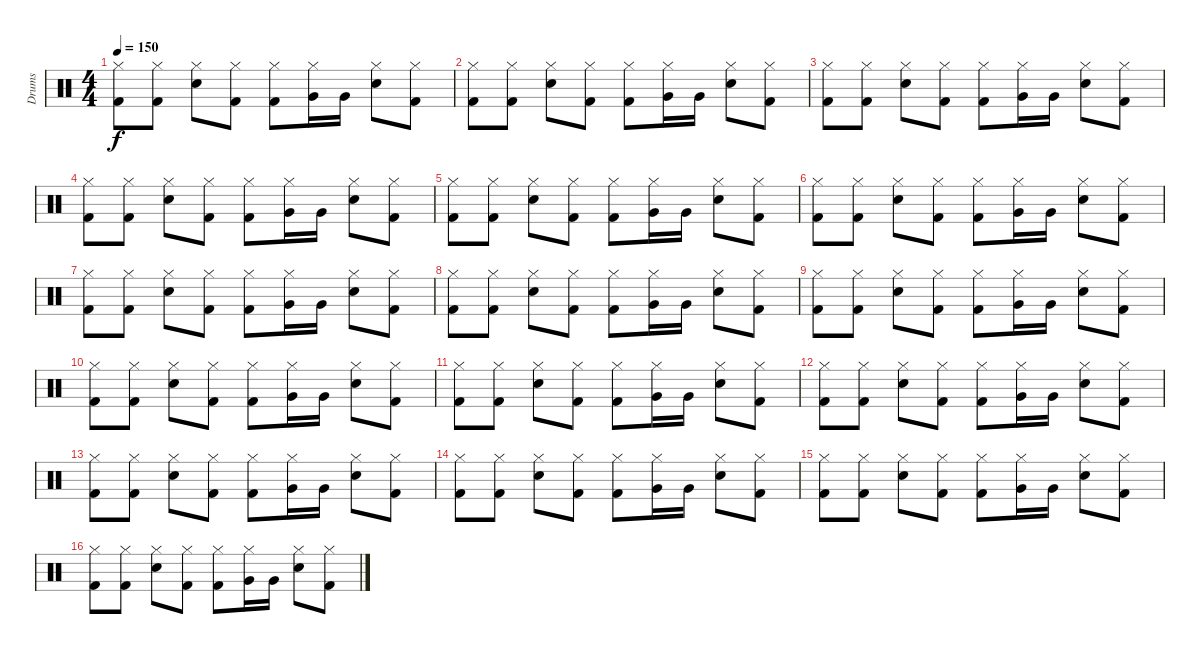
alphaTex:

\track ("Drums" "Drums") {instrument percussion}
\staff {score}
\articulation defaults
\ts (4 4)
\tempo 150
\clef neutral
\ks c
("Hi-Hat (closed)" "Kick (hit) 2").8{dy f} ("Hi-Hat (closed)" "Kick (hit) 2").8 ("Hi-Hat (closed)" "Snare (hit) 2").8 ("Hi-Hat (closed)" "Kick (hit) 2").8 ("Hi-Hat (closed)" "Kick (hit) 2").8 ("Hi-Hat (closed)" "Very Low Tom (hit)").16 "Very Low Tom (hit)".16 ("Hi-Hat (closed)" "Snare (hit) 2").8 ("Hi-Hat (closed)" "Kick (hit) 2").8 |
("Hi-Hat (closed)" "Kick (hit) 2").8 ("Hi-Hat (closed)" "Kick (hit) 2").8 ("Hi-Hat (closed)" "Snare (hit) 2").8 ("Hi-Hat (closed)" "Kick (hit) 2").8 ("Hi-Hat (closed)" "Kick (hit) 2").8 ("Hi-Hat (closed)" "Very Low Tom (hit)").16 "Very Low Tom (hit)".16 ("Hi-Hat (closed)" "Snare (hit) 2").8 ("Hi-Hat (closed)" "Kick (hit) 2").8 |
("Hi-Hat (closed)" "Kick (hit) 2").8 ("Hi-Hat (closed)" "Kick (hit) 2").8 ("Hi-Hat (closed)" "Snare (hit) 2").8 ("Hi-Hat (closed)" "Kick (hit) 2").8 ("Hi-Hat (closed)" "Kick (hit) 2").8 ("Hi-Hat (closed)" "Very Low Tom (hit)").16 "Very Low Tom (hit)".16 ("Hi-Hat (closed)" "Snare (hit) 2").8 ("Hi-Hat (closed)" "Kick (hit) 2").8 |
("Hi-Hat (closed)" "Kick (hit) 2").8 ("Hi-Hat (closed)" "Kick (hit) 2").8 ("Hi-Hat (closed)" "Snare (hit) 2").8 ("Hi-Hat (closed)" "Kick (hit) 2").8 ("Hi-Hat (closed)" "Kick (hit) 2").8 ("Hi-Hat (closed)" "Very Low Tom (hit)").16 "Very Low Tom (hit)".16 ("Hi-Hat (closed)" "Snare (hit) 2").8 ("Hi-Hat (closed)" "Kick (hit) 2").8 |
("Hi-Hat (closed)" "Kick (hit) 2").8 ("Hi-Hat (closed)" "Kick (hit) 2").8 ("Hi-Hat (closed)" "Snare (hit) 2").8 ("Hi-Hat (closed)" "Kick (hit) 2").8 ("Hi-Hat (closed)" "Kick (hit) 2").8 ("Hi-Hat (closed)" "Very Low Tom (hit)").16 "Very Low Tom (hit)".16 ("Hi-Hat (closed)" "Snare (hit) 2").8 ("Hi-Hat (closed)" "Kick (hit) 2").8 |
("Hi-Hat (closed)" "Kick (hit) 2").8 ("Hi-Hat (closed)" "Kick (hit) 2").8 ("Hi-Hat (closed)" "Snare (hit) 2").8 ("Hi-Hat (closed)" "Kick (hit) 2").8 ("Hi-Hat (closed)" "Kick (hit) 2").8 ("Hi-Hat (closed)" "Very Low Tom (hit)").16 "Very Low Tom (hit)".16 ("Hi-Hat (closed)" "Snare (hit) 2").8 ("Hi-Hat (closed)" "Kick (hit) 2").8 |
("Hi-Hat (closed)" "Kick (hit) 2").8 ("Hi-Hat (closed)" "Kick (hit) 2").8 ("Hi-Hat (closed)" "Snare (hit) 2").8 ("Hi-Hat (closed)" "Kick (hit) 2").8 ("Hi-Hat (closed)" "Kick (hit) 2").8 ("Hi-Hat (closed)" "Very Low Tom (hit)").16 "Very Low Tom (hit)".16 ("Hi-Hat (closed)" "Snare (hit) 2").8 ("Hi-Hat (closed)" "Kick (hit) 2").8 |
("Hi-Hat (closed)" "Kick (hit) 2").8 ("Hi-Hat (closed)" "Kick (hit) 2").8 ("Hi-Hat (closed)" "Snare (hit) 2").8 ("Hi-Hat (closed)" "Kick (hit) 2").8 ("Hi-Hat (closed)" "Kick (hit) 2").8 ("Hi-Hat (closed)" "Very Low Tom (hit)").16 "Very Low Tom (hit)".16 ("Hi-Hat (closed)" "Snare (hit) 2").8 ("Hi-Hat (closed)" "Kick (hit) 2").8 |
("Hi-Hat (closed)" "Kick (hit) 2").8 ("Hi-Hat (closed)" "Kick (hit) 2").8 ("Hi-Hat (closed)" "Snare (hit) 2").8 ("Hi-Hat (closed)" "Kick (hit) 2").8 ("Hi-Hat (closed)" "Kick (hit) 2").8 ("Hi-Hat (closed)" "Very Low Tom (hit)").16 "Very Low Tom (hit)".16 ("Hi-Hat (closed)" "Snare (hit) 2").8 ("Hi-Hat (closed)" "Kick (hit) 2").8 |
("Hi-Hat (closed)" "Kick (hit) 2").8 ("Hi-Hat (closed)" "Kick (hit) 2").8 ("Hi-Hat (closed)" "Snare (hit) 2").8 ("Hi-Hat (closed)" "Kick (hit) 2").8 ("Hi-Hat (closed)" "Kick (hit) 2").8 ("Hi-Hat (closed)" "Very Low Tom (hit)").16 "Very Low Tom (hit)".16 ("Hi-Hat (closed)" "Snare (hit) 2").8 ("Hi-Hat (closed)" "Kick (hit) 2").8 |
("Hi-Hat (closed)" "Kick (hit) 2").8 ("Hi-Hat (closed)" "Kick (hit) 2").8 ("Hi-Hat (closed)" "Snare (hit) 2").8 ("Hi-Hat (closed)" "Kick (hit) 2").8 ("Hi-Hat (closed)" "Kick (hit) 2").8 ("Hi-Hat (closed)" "Very Low Tom (hit)").16 "Very Low Tom (hit)".16 ("Hi-Hat (closed)" "Snare (hit) 2").8 ("Hi-Hat (closed)" "Kick (hit) 2").8 |
("Hi-Hat (closed)" "Kick (hit) 2").8 ("Hi-Hat (closed)" "Kick (hit) 2").8 ("Hi-Hat (closed)" "Snare (hit) 2").8 ("Hi-Hat (closed)" "Kick (hit) 2").8 ("Hi-Hat (closed)" "Kick (hit) 2").8 ("Hi-Hat (closed)" "Very Low Tom (hit)").16 "Very Low Tom (hit)".16 ("Hi-Hat (closed)" "Snare (hit) 2").8 ("Hi-Hat (closed)" "Kick (hit) 2").8 |
("Hi-Hat (closed)" "Kick (hit) 2").8 ("Hi-Hat (closed)" "Kick (hit) 2").8 ("Hi-Hat (closed)" "Snare (hit) 2").8 ("Hi-Hat (closed)" "Kick (hit) 2").8 ("Hi-Hat (closed)" "Kick (hit) 2").8 ("Hi-Hat (closed)" "Very Low Tom (hit)").16 "Very Low Tom (hit)".16 ("Hi-Hat (closed)" "Snare (hit) 2").8 ("Hi-Hat (closed)" "Kick (hit) 2").8 |
("Hi-Hat (closed)" "Kick (hit) 2").8 ("Hi-Hat (closed)" "Kick (hit) 2").8 ("Hi-Hat (closed)" "Snare (hit) 2").8 ("Hi-Hat (closed)" "Kick (hit) 2").8 ("Hi-Hat (closed)" "Kick (hit) 2").8 ("Hi-Hat (closed)" "Very Low Tom (hit)").16 "Very Low Tom (hit)".16 ("Hi-Hat (closed)" "Snare (hit) 2").8 ("Hi-Hat (closed)" "Kick (hit) 2").8 |
("Hi-Hat (closed)" "Kick (hit) 2").8 ("Hi-Hat (closed)" "Kick (hit) 2").8 ("Hi-Hat (closed)" "Snare (hit) 2").8 ("Hi-Hat (closed)" "Kick (hit) 2").8 ("Hi-Hat (closed)" "Kick (hit) 2").8 ("Hi-Hat (closed)" "Very Low Tom (hit)").16 "Very Low Tom (hit)".16 ("Hi-Hat (closed)" "Snare (hit) 2").8 ("Hi-Hat (closed)" "Kick (hit) 2").8 |
("Hi-Hat (closed)" "Kick (hit) 2").8 ("Hi-Hat (closed)" "Kick (hit) 2").8 ("Hi-Hat (closed)" "Snare (hit) 2").8 ("Hi-Hat (closed)" "Kick (hit) 2").8 ("Hi-Hat (closed)" "Kick (hit) 2").8 ("Hi-Hat (closed)" "Very Low Tom (hit)").16 "Very Low Tom (hit)".16 ("Hi-Hat (closed)" "Snare (hit) 2").8 ("Hi-Hat (closed)" "Kick (hit) 2").8
